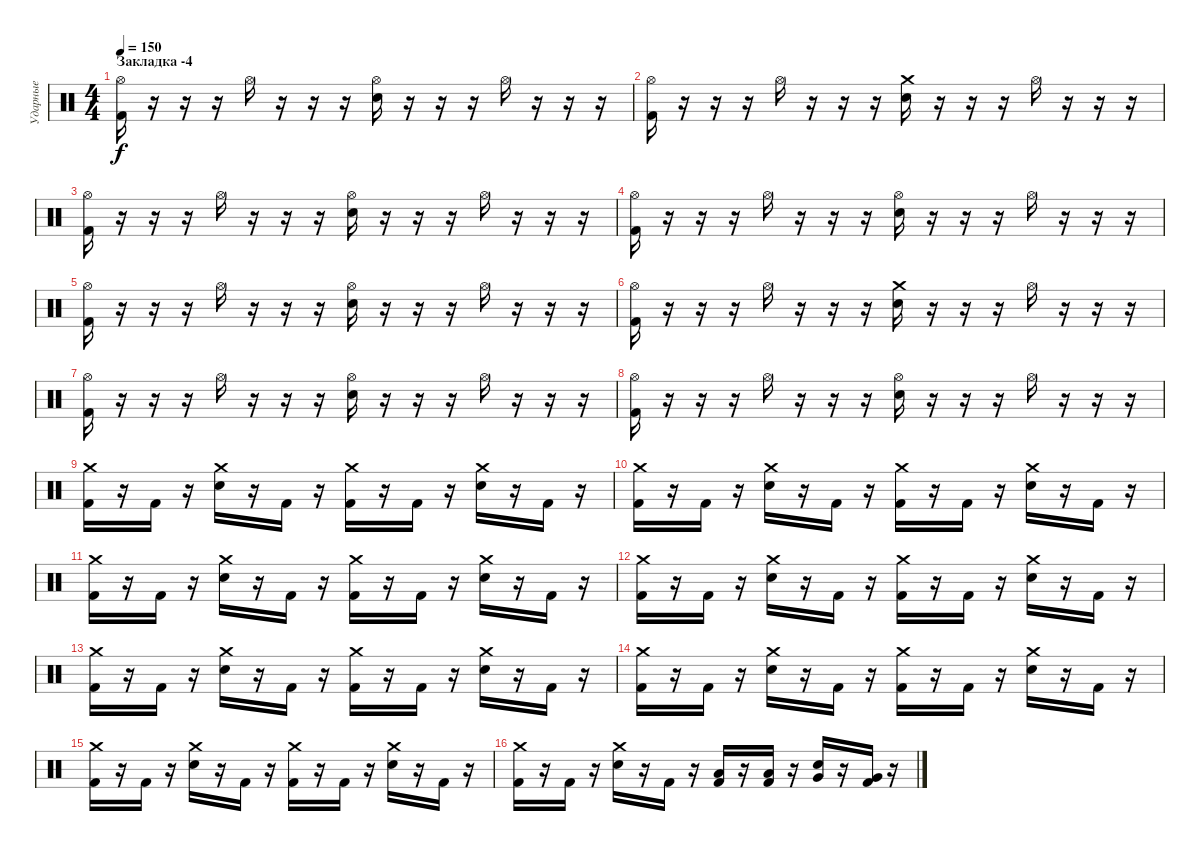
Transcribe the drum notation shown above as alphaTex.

\track ("Ударные" "Ударные") {instrument percussion}
\staff {score}
\articulation defaults
\ts (4 4)
\section ("" "Закладка -4")
\tempo 150
\clef neutral
\ks c
("Hi-Hat (open)" "Kick (hit) 2").16{dy f} r.16 r.16 r.16 "Hi-Hat (open)".16 r.16 r.16 r.16 ("Hi-Hat (open)" "Electric Snare (hit)").16 r.16 r.16 r.16 "Hi-Hat (open)".16 r.16 r.16 r.16 |
("Hi-Hat (open)" "Kick (hit) 2").16 r.16 r.16 r.16 "Hi-Hat (open)".16 r.16 r.16 r.16 ("Crash medium (hit)" "Electric Snare (hit)").16 r.16 r.16 r.16 "Hi-Hat (open)".16 r.16 r.16 r.16 |
("Hi-Hat (open)" "Kick (hit) 2").16 r.16 r.16 r.16 "Hi-Hat (open)".16 r.16 r.16 r.16 ("Hi-Hat (open)" "Electric Snare (hit)").16 r.16 r.16 r.16 "Hi-Hat (open)".16 r.16 r.16 r.16 |
("Hi-Hat (open)" "Kick (hit) 2").16 r.16 r.16 r.16 "Hi-Hat (open)".16 r.16 r.16 r.16 ("Hi-Hat (open)" "Electric Snare (hit)").16 r.16 r.16 r.16 "Hi-Hat (open)".16 r.16 r.16 r.16 |
("Hi-Hat (open)" "Kick (hit) 2").16 r.16 r.16 r.16 "Hi-Hat (open)".16 r.16 r.16 r.16 ("Hi-Hat (open)" "Electric Snare (hit)").16 r.16 r.16 r.16 "Hi-Hat (open)".16 r.16 r.16 r.16 |
("Hi-Hat (open)" "Kick (hit) 2").16 r.16 r.16 r.16 "Hi-Hat (open)".16 r.16 r.16 r.16 ("Crash medium (hit)" "Electric Snare (hit)").16 r.16 r.16 r.16 "Hi-Hat (open)".16 r.16 r.16 r.16 |
("Hi-Hat (open)" "Kick (hit) 2").16 r.16 r.16 r.16 "Hi-Hat (open)".16 r.16 r.16 r.16 ("Hi-Hat (open)" "Electric Snare (hit)").16 r.16 r.16 r.16 "Hi-Hat (open)".16 r.16 r.16 r.16 |
("Hi-Hat (open)" "Kick (hit) 2").16 r.16 r.16 r.16 "Hi-Hat (open)".16 r.16 r.16 r.16 ("Hi-Hat (open)" "Electric Snare (hit)").16 r.16 r.16 r.16 "Hi-Hat (open)".16 r.16 r.16 r.16 |
("Crash medium (hit)" "Kick (hit) 2").16 r.16 "Kick (hit) 2".16 r.16 ("Crash medium (hit)" "Electric Snare (hit)").16 r.16 "Kick (hit) 2".16 r.16 ("Crash medium (hit)" "Kick (hit) 2").16 r.16 "Kick (hit) 2".16 r.16 ("Crash medium (hit)" "Electric Snare (hit)").16 r.16 "Kick (hit) 2".16 r.16 |
("Crash medium (hit)" "Kick (hit) 2").16 r.16 "Kick (hit) 2".16 r.16 ("Crash medium (hit)" "Electric Snare (hit)").16 r.16 "Kick (hit) 2".16 r.16 ("Crash medium (hit)" "Kick (hit) 2").16 r.16 "Kick (hit) 2".16 r.16 ("Crash medium (hit)" "Electric Snare (hit)").16 r.16 "Kick (hit) 2".16 r.16 |
("Crash medium (hit)" "Kick (hit) 2").16 r.16 "Kick (hit) 2".16 r.16 ("Crash medium (hit)" "Electric Snare (hit)").16 r.16 "Kick (hit) 2".16 r.16 ("Crash medium (hit)" "Kick (hit) 2").16 r.16 "Kick (hit) 2".16 r.16 ("Crash medium (hit)" "Electric Snare (hit)").16 r.16 "Kick (hit) 2".16 r.16 |
("Crash medium (hit)" "Kick (hit) 2").16 r.16 "Kick (hit) 2".16 r.16 ("Crash medium (hit)" "Electric Snare (hit)").16 r.16 "Kick (hit) 2".16 r.16 ("Crash medium (hit)" "Kick (hit) 2").16 r.16 "Kick (hit) 2".16 r.16 ("Crash medium (hit)" "Electric Snare (hit)").16 r.16 "Kick (hit) 2".16 r.16 |
("Crash medium (hit)" "Kick (hit) 2").16 r.16 "Kick (hit) 2".16 r.16 ("Crash medium (hit)" "Electric Snare (hit)").16 r.16 "Kick (hit) 2".16 r.16 ("Crash medium (hit)" "Kick (hit) 2").16 r.16 "Kick (hit) 2".16 r.16 ("Crash medium (hit)" "Electric Snare (hit)").16 r.16 "Kick (hit) 2".16 r.16 |
("Crash medium (hit)" "Kick (hit) 2").16 r.16 "Kick (hit) 2".16 r.16 ("Crash medium (hit)" "Electric Snare (hit)").16 r.16 "Kick (hit) 2".16 r.16 ("Crash medium (hit)" "Kick (hit) 2").16 r.16 "Kick (hit) 2".16 r.16 ("Crash medium (hit)" "Electric Snare (hit)").16 r.16 "Kick (hit) 2".16 r.16 |
("Crash medium (hit)" "Kick (hit) 2").16 r.16 "Kick (hit) 2".16 r.16 ("Crash medium (hit)" "Electric Snare (hit)").16 r.16 "Kick (hit) 2".16 r.16 ("Crash medium (hit)" "Kick (hit) 2").16 r.16 "Kick (hit) 2".16 r.16 ("Crash medium (hit)" "Electric Snare (hit)").16 r.16 "Kick (hit) 2".16 r.16 |
("Crash medium (hit)" "Kick (hit) 2").16 r.16 "Kick (hit) 2".16 r.16 ("Crash medium (hit)" "Electric Snare (hit)").16 r.16 "Kick (hit) 2".16 r.16 ("Low Tom (hit)" "Kick (hit) 2").16 r.16 ("Low Tom (hit)" "Kick (hit) 2").16 r.16 ("Very Low Tom (hit)" "Electric Snare (hit)").16 r.16 ("Very Low Tom (hit)" "Kick (hit) 2").16 r.16
